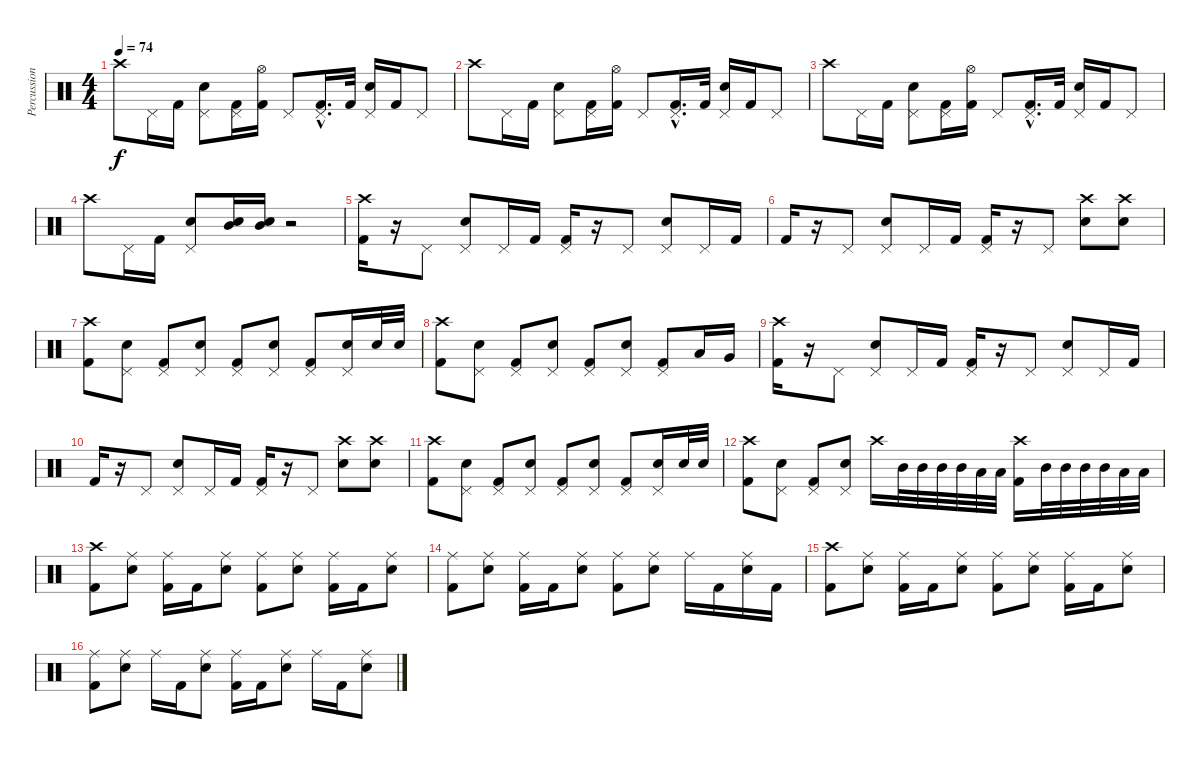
\track ("Percussion" "Percussion") {instrument percussion}
\staff {score}
\articulation defaults
\ts (4 4)
\tempo 74
\clef neutral
\ks c "Crash high (hit)".8{dy f} "Pedal Hi-Hat (hit)".16 "Kick (hit) 2".16
("Pedal Hi-Hat (hit)" "Snare (hit) 2").8 ("Pedal Hi-Hat (hit)" "Kick (hit) 2").16 ("Hi-Hat (open)" "Kick (hit) 2").16 "Pedal Hi-Hat (hit)".8 ("Pedal Hi-Hat (hit)"{hac} "Kick (hit) 2"{hac}).16{d} "Kick (hit) 2".32 ("Pedal Hi-Hat (hit)" "Snare (hit) 2").16 "Kick (hit) 2".16 "Pedal Hi-Hat (hit)".8 |
"Crash high (hit)".8 "Pedal Hi-Hat (hit)".16 "Kick (hit) 2".16 ("Pedal Hi-Hat (hit)" "Snare (hit) 2").8 ("Pedal Hi-Hat (hit)" "Kick (hit) 2").16 ("Hi-Hat (open)" "Kick (hit) 2").16 "Pedal Hi-Hat (hit)".8 ("Pedal Hi-Hat (hit)"{hac} "Kick (hit) 2"{hac}).16{d} "Kick (hit) 2".32 ("Pedal Hi-Hat (hit)" "Snare (hit) 2").16 "Kick (hit) 2".16 "Pedal Hi-Hat (hit)".8 |
"Crash high (hit)".8 "Pedal Hi-Hat (hit)".16 "Kick (hit) 2".16 ("Pedal Hi-Hat (hit)" "Snare (hit) 2").8 ("Pedal Hi-Hat (hit)" "Kick (hit) 2").16 ("Hi-Hat (open)" "Kick (hit) 2").16 "Pedal Hi-Hat (hit)".8 ("Pedal Hi-Hat (hit)"{hac} "Kick (hit) 2"{hac}).16{d} "Kick (hit) 2".32 ("Pedal Hi-Hat (hit)" "Snare (hit) 2").16 "Kick (hit) 2".16 "Pedal Hi-Hat (hit)".8 |
"Crash high (hit)".8 "Pedal Hi-Hat (hit)".16 "Kick (hit) 2".16 ("Pedal Hi-Hat (hit)" "Snare (hit) 2").8 ("Mid Tom (hit)" "Snare (hit) 2").16 ("Mid Tom (hit)" "Snare (hit) 2").16 r.2 |
("Crash high (hit)" "Kick (hit) 2").16 r.16 "Pedal Hi-Hat (hit)".8 ("Pedal Hi-Hat (hit)" "Snare (hit) 2").8 "Pedal Hi-Hat (hit)".16 "Kick (hit) 2".16 ("Pedal Hi-Hat (hit)" "Kick (hit) 2").16 r.16 "Pedal Hi-Hat (hit)".8 ("Pedal Hi-Hat (hit)" "Snare (hit) 2").8 "Pedal Hi-Hat (hit)".16 "Kick (hit) 2".16 |
"Kick (hit) 2".16 r.16 "Pedal Hi-Hat (hit)".8 ("Pedal Hi-Hat (hit)" "Snare (hit) 2").8 "Pedal Hi-Hat (hit)".16 "Kick (hit) 2".16 ("Pedal Hi-Hat (hit)" "Kick (hit) 2").16 r.16 "Pedal Hi-Hat (hit)".8 ("Crash high (hit)" "Snare (hit) 2").8 ("Crash high (hit)" "Snare (hit) 2").8 |
("Crash high (hit)" "Kick (hit) 2").8 ("Pedal Hi-Hat (hit)" "Snare (hit) 2").8 ("Pedal Hi-Hat (hit)" "Kick (hit) 2").8 ("Pedal Hi-Hat (hit)" "Snare (hit) 2").8 ("Pedal Hi-Hat (hit)" "Kick (hit) 2").8 ("Pedal Hi-Hat (hit)" "Snare (hit) 2").8 ("Pedal Hi-Hat (hit)" "Kick (hit) 2").8 ("Pedal Hi-Hat (hit)" "Snare (hit) 2").16 "Snare (hit) 2".32 "Snare (hit) 2".32 |
("Crash high (hit)" "Kick (hit) 2").8 ("Pedal Hi-Hat (hit)" "Snare (hit) 2").8 ("Pedal Hi-Hat (hit)" "Kick (hit) 2").8 ("Pedal Hi-Hat (hit)" "Snare (hit) 2").8 ("Pedal Hi-Hat (hit)" "Kick (hit) 2").8 ("Pedal Hi-Hat (hit)" "Snare (hit) 2").8 ("Pedal Hi-Hat (hit)" "Kick (hit) 2").8 "Low Tom (hit)".16 "Very Low Tom (hit)".16 |
("Crash high (hit)" "Kick (hit) 2").16 r.16 "Pedal Hi-Hat (hit)".8 ("Pedal Hi-Hat (hit)" "Snare (hit) 2").8 "Pedal Hi-Hat (hit)".16 "Kick (hit) 2".16 ("Pedal Hi-Hat (hit)" "Kick (hit) 2").16 r.16 "Pedal Hi-Hat (hit)".8 ("Pedal Hi-Hat (hit)" "Snare (hit) 2").8 "Pedal Hi-Hat (hit)".16 "Kick (hit) 2".16 |
"Kick (hit) 2".16 r.16 "Pedal Hi-Hat (hit)".8 ("Pedal Hi-Hat (hit)" "Snare (hit) 2").8 "Pedal Hi-Hat (hit)".16 "Kick (hit) 2".16 ("Pedal Hi-Hat (hit)" "Kick (hit) 2").16 r.16 "Pedal Hi-Hat (hit)".8 ("Crash high (hit)" "Snare (hit) 2").8 ("Crash high (hit)" "Snare (hit) 2").8 |
("Crash high (hit)" "Kick (hit) 2").8 ("Pedal Hi-Hat (hit)" "Snare (hit) 2").8 ("Pedal Hi-Hat (hit)" "Kick (hit) 2").8 ("Pedal Hi-Hat (hit)" "Snare (hit) 2").8 ("Pedal Hi-Hat (hit)" "Kick (hit) 2").8 ("Pedal Hi-Hat (hit)" "Snare (hit) 2").8 ("Pedal Hi-Hat (hit)" "Kick (hit) 2").8 ("Pedal Hi-Hat (hit)" "Snare (hit) 2").16 "Snare (hit) 2".32 "Snare (hit) 2".32 |
("Crash high (hit)" "Kick (hit) 2").8 ("Pedal Hi-Hat (hit)" "Snare (hit) 2").8 ("Pedal Hi-Hat (hit)" "Kick (hit) 2").8 ("Pedal Hi-Hat (hit)" "Snare (hit) 2").8 "Crash high (hit)".16 "Mid Tom (hit)".32 "Mid Tom (hit)".32 "Mid Tom (hit)".32 "Mid Tom (hit)".32 "Low Tom (hit)".32 "Low Tom (hit)".32 ("Crash high (hit)" "Kick (hit) 2").16 "Mid Tom (hit)".32 "Mid Tom (hit)".32 "Mid Tom (hit)".32 "Mid Tom (hit)".32 "Low Tom (hit)".32 "Low Tom (hit)".32 |
("Crash high (hit)" "Kick (hit) 2").8 ("Ride (middle)" "Snare (hit) 2").8 ("Ride (middle)" "Kick (hit) 2").16 "Kick (hit) 2".16 ("Ride (middle)" "Snare (hit) 2").8 ("Ride (middle)" "Kick (hit) 2").8 ("Ride (middle)" "Snare (hit) 2").8 ("Ride (middle)" "Kick (hit) 2").16 "Kick (hit) 2".16 ("Ride (middle)" "Snare (hit) 2").8 |
("Ride (middle)" "Kick (hit) 2").8 ("Ride (middle)" "Snare (hit) 2").8 ("Ride (middle)" "Kick (hit) 2").16 "Kick (hit) 2".16 ("Ride (middle)" "Snare (hit) 2").8 ("Ride (middle)" "Kick (hit) 2").8 ("Ride (middle)" "Snare (hit) 2").8 "Ride (middle)".16 "Kick (hit) 2".16 ("Ride (middle)" "Snare (hit) 2").16 "Kick (hit) 2".16 |
("Crash high (hit)" "Kick (hit) 2").8 ("Ride (middle)" "Snare (hit) 2").8 ("Ride (middle)" "Kick (hit) 2").16 "Kick (hit) 2".16 ("Ride (middle)" "Snare (hit) 2").8 ("Ride (middle)" "Kick (hit) 2").8 ("Ride (middle)" "Snare (hit) 2").8 ("Ride (middle)" "Kick (hit) 2").16 "Kick (hit) 2".16 ("Ride (middle)" "Snare (hit) 2").8 |
("Ride (middle)" "Kick (hit) 2").8 ("Ride (middle)" "Snare (hit) 2").8 "Ride (middle)".16 "Kick (hit) 2".16 ("Ride (middle)" "Snare (hit) 2").8 ("Ride (middle)" "Kick (hit) 2").16 "Kick (hit) 2".16 ("Ride (middle)" "Snare (hit) 2").8 "Ride (middle)".16 "Kick (hit) 2".16 ("Ride (middle)" "Snare (hit) 2").8
